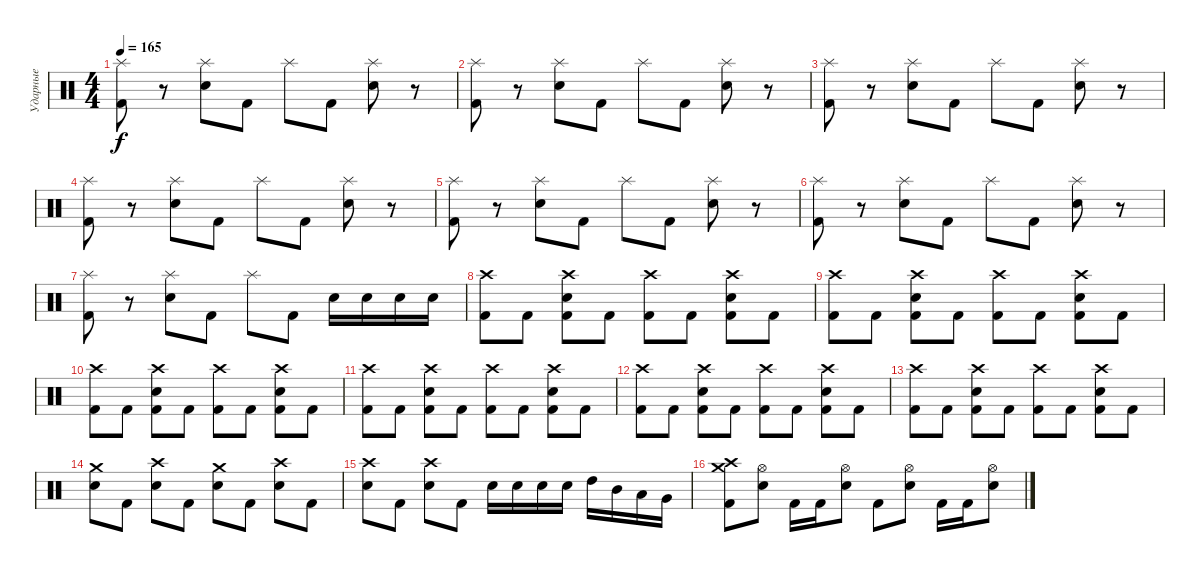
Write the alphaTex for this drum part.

\track ("Ударные" "Ударные") {instrument percussion}
\staff {score}
\articulation defaults
\ts (4 4)
\tempo 165
\clef neutral
\ks c
("Splash (hit)" "Kick (hit) 2").8{dy f} r.8 ("Splash (hit)" "Electric Snare (hit)").8 "Kick (hit) 2".8 "Splash (hit)".8 "Kick (hit) 2".8 ("Splash (hit)" "Electric Snare (hit)").8 r.8 |
("Splash (hit)" "Kick (hit) 2").8 r.8 ("Splash (hit)" "Electric Snare (hit)").8 "Kick (hit) 2".8 "Splash (hit)".8 "Kick (hit) 2".8 ("Splash (hit)" "Electric Snare (hit)").8 r.8 |
("Splash (hit)" "Kick (hit) 2").8 r.8 ("Splash (hit)" "Electric Snare (hit)").8 "Kick (hit) 2".8 "Splash (hit)".8 "Kick (hit) 2".8 ("Splash (hit)" "Electric Snare (hit)").8 r.8 |
("Splash (hit)" "Kick (hit) 2").8 r.8 ("Splash (hit)" "Electric Snare (hit)").8 "Kick (hit) 2".8 "Splash (hit)".8 "Kick (hit) 2".8 ("Splash (hit)" "Electric Snare (hit)").8 r.8 |
("Splash (hit)" "Kick (hit) 2").8 r.8 ("Splash (hit)" "Electric Snare (hit)").8 "Kick (hit) 2".8 "Splash (hit)".8 "Kick (hit) 2".8 ("Splash (hit)" "Electric Snare (hit)").8 r.8 |
("Splash (hit)" "Kick (hit) 2").8 r.8 ("Splash (hit)" "Electric Snare (hit)").8 "Kick (hit) 2".8 "Splash (hit)".8 "Kick (hit) 2".8 ("Splash (hit)" "Electric Snare (hit)").8 r.8 |
("Splash (hit)" "Kick (hit) 2").8 r.8 ("Splash (hit)" "Electric Snare (hit)").8 "Kick (hit) 2".8 "Splash (hit)".8 "Kick (hit) 2".8 "Electric Snare (hit)".16 "Electric Snare (hit)".16 "Electric Snare (hit)".16 "Electric Snare (hit)".16 |
("Crash high (hit)" "Kick (hit) 2").8 "Kick (hit) 2".8 ("Crash high (hit)" "Electric Snare (hit)" "Kick (hit) 2").8 "Kick (hit) 2".8 ("Crash high (hit)" "Kick (hit) 2").8 "Kick (hit) 2".8 ("Crash high (hit)" "Electric Snare (hit)" "Kick (hit) 2").8 "Kick (hit) 2".8 |
("Crash high (hit)" "Kick (hit) 2").8 "Kick (hit) 2".8 ("Crash high (hit)" "Electric Snare (hit)" "Kick (hit) 2").8 "Kick (hit) 2".8 ("Crash high (hit)" "Kick (hit) 2").8 "Kick (hit) 2".8 ("Crash high (hit)" "Electric Snare (hit)" "Kick (hit) 2").8 "Kick (hit) 2".8 |
("Crash high (hit)" "Kick (hit) 2").8 "Kick (hit) 2".8 ("Crash high (hit)" "Electric Snare (hit)" "Kick (hit) 2").8 "Kick (hit) 2".8 ("Crash high (hit)" "Kick (hit) 2").8 "Kick (hit) 2".8 ("Crash high (hit)" "Electric Snare (hit)" "Kick (hit) 2").8 "Kick (hit) 2".8 |
("Crash high (hit)" "Kick (hit) 2").8 "Kick (hit) 2".8 ("Crash high (hit)" "Electric Snare (hit)" "Kick (hit) 2").8 "Kick (hit) 2".8 ("Crash high (hit)" "Kick (hit) 2").8 "Kick (hit) 2".8 ("Crash high (hit)" "Electric Snare (hit)" "Kick (hit) 2").8 "Kick (hit) 2".8 |
("Crash high (hit)" "Kick (hit) 2").8 "Kick (hit) 2".8 ("Crash high (hit)" "Electric Snare (hit)" "Kick (hit) 2").8 "Kick (hit) 2".8 ("Crash high (hit)" "Kick (hit) 2").8 "Kick (hit) 2".8 ("Crash high (hit)" "Electric Snare (hit)" "Kick (hit) 2").8 "Kick (hit) 2".8 |
("Crash high (hit)" "Kick (hit) 2").8 "Kick (hit) 2".8 ("Crash high (hit)" "Electric Snare (hit)" "Kick (hit) 2").8 "Kick (hit) 2".8 ("Crash high (hit)" "Kick (hit) 2").8 "Kick (hit) 2".8 ("Crash high (hit)" "Electric Snare (hit)" "Kick (hit) 2").8 "Kick (hit) 2".8 |
("Crash medium (hit)" "Electric Snare (hit)").8 "Kick (hit) 2".8 ("Crash high (hit)" "Electric Snare (hit)").8 "Kick (hit) 2".8 ("Crash medium (hit)" "Electric Snare (hit)").8 "Kick (hit) 2".8 ("Crash high (hit)" "Electric Snare (hit)").8 "Kick (hit) 2".8 |
("Crash high (hit)" "Electric Snare (hit)").8 "Kick (hit) 2".8 ("Crash high (hit)" "Electric Snare (hit)").8 "Kick (hit) 2".8 "Electric Snare (hit)".16 "Electric Snare (hit)".16 "Electric Snare (hit)".16 "Electric Snare (hit)".16 "High Tom (hit)".16 "Mid Tom (hit)".16 "Low Tom (hit)".16 "Very Low Tom (hit)".16 |
("Crash high (hit)" "Crash medium (hit)" "Kick (hit) 2").8 ("Hi-Hat (open)" "Electric Snare (hit)").8 "Kick (hit) 2".16 "Kick (hit) 2".16 ("Hi-Hat (open)" "Electric Snare (hit)").8 "Kick (hit) 2".8 ("Hi-Hat (open)" "Electric Snare (hit)").8 "Kick (hit) 2".16 "Kick (hit) 2".16 ("Hi-Hat (open)" "Electric Snare (hit)").8
